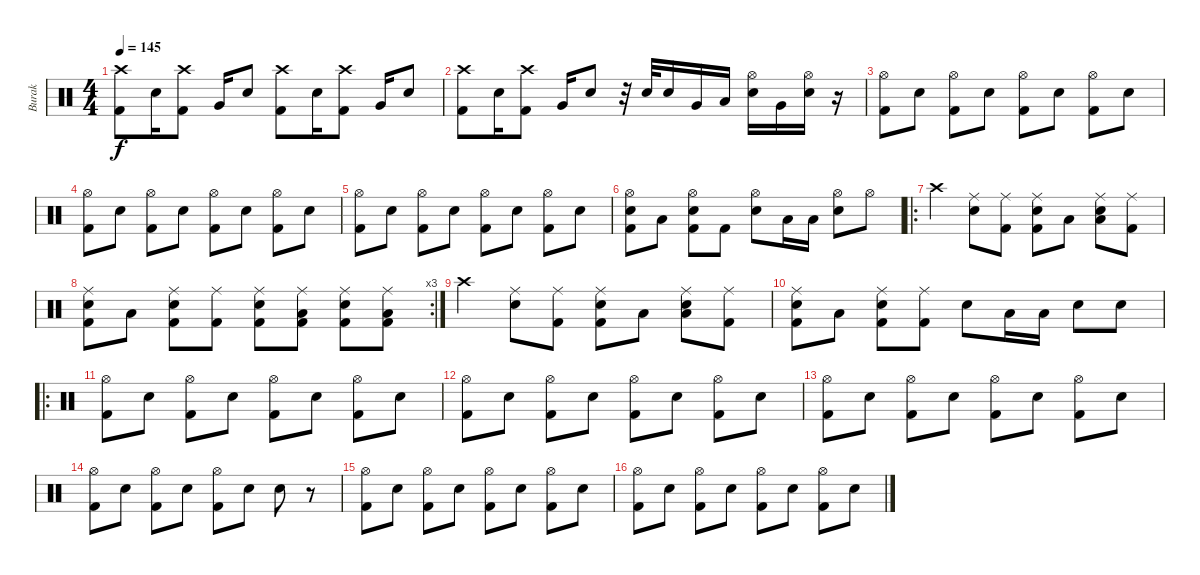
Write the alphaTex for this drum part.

\track ("Burak" "Burak") {instrument percussion}
\staff {score}
\articulation defaults
\ts (4 4)
\tempo 145
\clef neutral
\ks c
("Crash high (hit)" "Kick (hit) 2").8{dy f} "Electric Snare (hit)".16 ("Crash high (hit)" "Kick (hit) 2").8 "Very Low Tom (hit)".16 "Electric Snare (hit)".8 ("Crash high (hit)" "Kick (hit) 2").8 "Electric Snare (hit)".16 ("Crash high (hit)" "Kick (hit) 2").8 "Very Low Tom (hit)".16 "Electric Snare (hit)".8 |
("Crash high (hit)" "Kick (hit) 2").8 "Electric Snare (hit)".16 ("Crash high (hit)" "Kick (hit) 2").8 "Very Low Tom (hit)".16 "Electric Snare (hit)".8 r.32 "Electric Snare (hit)".32 "Electric Snare (hit)".16 "Very Low Tom (hit)".16 "Low Tom (hit)".16 ("Hi-Hat (open)" "Electric Snare (hit)").16 "Very Low Tom (hit)".16 ("Hi-Hat (open)" "Electric Snare (hit)").16 r.16 |
("Hi-Hat (open)" "Kick (hit) 2").8 "Electric Snare (hit)".8 ("Hi-Hat (open)" "Kick (hit) 2").8 "Electric Snare (hit)".8 ("Hi-Hat (open)" "Kick (hit) 2").8 "Electric Snare (hit)".8 ("Hi-Hat (open)" "Kick (hit) 2").8 "Electric Snare (hit)".8 |
("Hi-Hat (open)" "Kick (hit) 2").8 "Electric Snare (hit)".8 ("Hi-Hat (open)" "Kick (hit) 2").8 "Electric Snare (hit)".8 ("Hi-Hat (open)" "Kick (hit) 2").8 "Electric Snare (hit)".8 ("Hi-Hat (open)" "Kick (hit) 2").8 "Electric Snare (hit)".8 |
("Hi-Hat (open)" "Kick (hit) 2").8 "Electric Snare (hit)".8 ("Hi-Hat (open)" "Kick (hit) 2").8 "Electric Snare (hit)".8 ("Hi-Hat (open)" "Kick (hit) 2").8 "Electric Snare (hit)".8 ("Hi-Hat (open)" "Kick (hit) 2").8 "Electric Snare (hit)".8 |
("Electric Snare (hit)" "Kick (hit) 2" "Hi-Hat (open)").8 "Low Tom (hit)".8 ("Electric Snare (hit)" "Kick (hit) 2" "Hi-Hat (open)").8 "Kick (hit) 2".8 ("Electric Snare (hit)" "Hi-Hat (open)").8 "Low Tom (hit)".16 "Low Tom (hit)".16 ("Electric Snare (hit)" "Hi-Hat (open)").8 "Hi-Hat (open)".8 |
\ro "Crash high (hit)".4
("Electric Snare (hit)" "Ride (middle)").8 ("Kick (hit) 2" "Ride (middle)").8 ("Electric Snare (hit)" "Kick (hit) 2" "Ride (middle)").8 "Low Tom (hit)".8 ("Electric Snare (hit)" "Low Floor Tom (hit)" "Ride (middle)").8 ("Kick (hit) 2" "Ride (middle)").8 |
\rc 3
("Electric Snare (hit)" "Kick (hit) 2" "Ride (middle)").8 "Low Tom (hit)".8 ("Electric Snare (hit)" "Kick (hit) 2" "Ride (middle)").8 ("Kick (hit) 2" "Ride (middle)").8 ("Electric Snare (hit)" "Kick (hit) 2" "Ride (middle)").8 ("Low Tom (hit)" "Kick (hit) 2" "Ride (middle)").8 ("Electric Snare (hit)" "Kick (hit) 2" "Ride (middle)").8 ("Low Tom (hit)" "Kick (hit) 2" "Ride (middle)").8 |
"Crash high (hit)".4 ("Electric Snare (hit)" "Ride (middle)").8 ("Kick (hit) 2" "Ride (middle)").8 ("Electric Snare (hit)" "Kick (hit) 2" "Ride (middle)").8 "Low Tom (hit)".8 ("Electric Snare (hit)" "Low Floor Tom (hit)" "Ride (middle)").8 ("Kick (hit) 2" "Ride (middle)").8 |
("Electric Snare (hit)" "Kick (hit) 2" "Ride (middle)").8 "Low Tom (hit)".8 ("Electric Snare (hit)" "Kick (hit) 2" "Ride (middle)").8 ("Kick (hit) 2" "Ride (middle)").8 "Electric Snare (hit)".8 "Low Tom (hit)".16 "Low Tom (hit)".16 "Electric Snare (hit)".8 "Electric Snare (hit)".8 |
\ro
("Kick (hit) 2" "Hi-Hat (open)").8 "Electric Snare (hit)".8 ("Kick (hit) 2" "Hi-Hat (open)").8 "Electric Snare (hit)".8 ("Kick (hit) 2" "Hi-Hat (open)").8 "Electric Snare (hit)".8 ("Kick (hit) 2" "Hi-Hat (open)").8 "Electric Snare (hit)".8 |
("Kick (hit) 2" "Hi-Hat (open)").8 "Electric Snare (hit)".8 ("Kick (hit) 2" "Hi-Hat (open)").8 "Electric Snare (hit)".8 ("Kick (hit) 2" "Hi-Hat (open)").8 "Electric Snare (hit)".8 ("Kick (hit) 2" "Hi-Hat (open)").8 "Electric Snare (hit)".8 |
("Kick (hit) 2" "Hi-Hat (open)").8 "Electric Snare (hit)".8 ("Kick (hit) 2" "Hi-Hat (open)").8 "Electric Snare (hit)".8 ("Kick (hit) 2" "Hi-Hat (open)").8 "Electric Snare (hit)".8 ("Kick (hit) 2" "Hi-Hat (open)").8 "Electric Snare (hit)".8 |
("Kick (hit) 2" "Hi-Hat (open)").8 "Electric Snare (hit)".8 ("Kick (hit) 2" "Hi-Hat (open)").8 "Electric Snare (hit)".8 ("Kick (hit) 2" "Hi-Hat (open)").8 "Electric Snare (hit)".8 "Electric Snare (hit)".8 r.8 |
("Kick (hit) 2" "Hi-Hat (open)").8 "Electric Snare (hit)".8 ("Kick (hit) 2" "Hi-Hat (open)").8 "Electric Snare (hit)".8 ("Kick (hit) 2" "Hi-Hat (open)").8 "Electric Snare (hit)".8 ("Kick (hit) 2" "Hi-Hat (open)").8 "Electric Snare (hit)".8 |
("Kick (hit) 2" "Hi-Hat (open)").8 "Electric Snare (hit)".8 ("Kick (hit) 2" "Hi-Hat (open)").8 "Electric Snare (hit)".8 ("Kick (hit) 2" "Hi-Hat (open)").8 "Electric Snare (hit)".8 ("Kick (hit) 2" "Hi-Hat (open)").8 "Electric Snare (hit)".8
